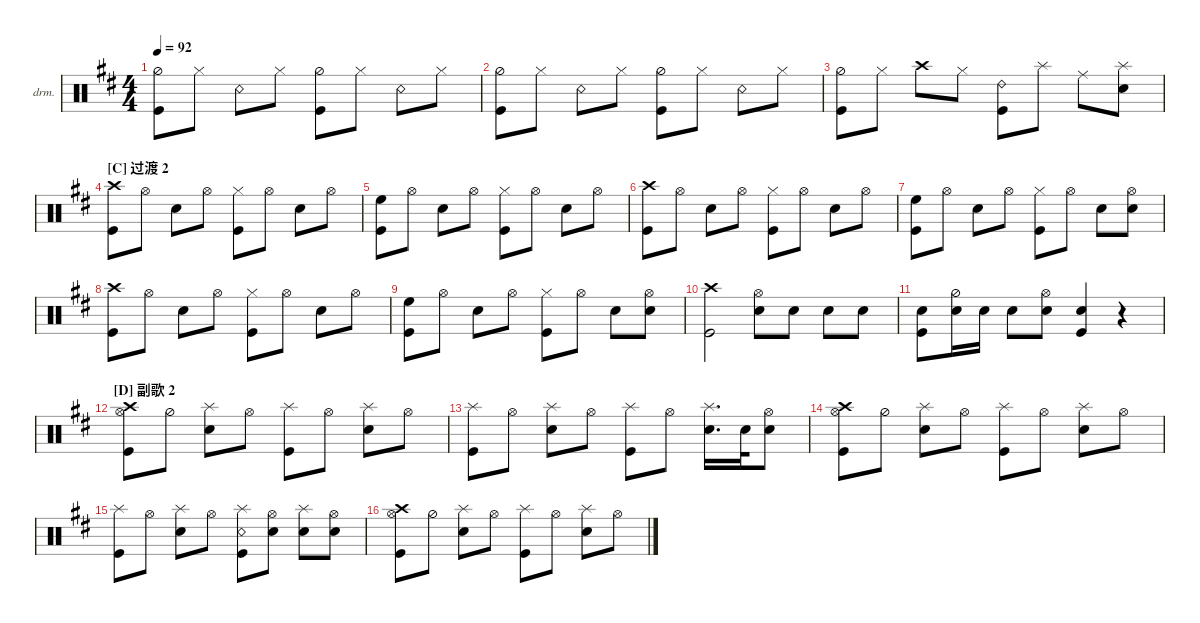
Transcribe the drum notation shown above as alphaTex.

\defaultSystemsLayout 4
\hideDynamics
\bracketExtendMode nobrackets
\firstSystemTrackNameOrientation horizontal
\otherSystemsTrackNameOrientation horizontal
\track ("Drumkit" "drm.") {instrument percussion}
\staff {score}
\articulation defaults
\ts (4 4)
\tempo 92
\clef neutral
\ks d
("Hi-Hat (half)" "Kick (hit)").8{dy mf} "Hi-Hat (closed)".8 "Snare (rim shot)".8 "Hi-Hat (closed)".8 ("Hi-Hat (half)" "Kick (hit)").8 "Hi-Hat (closed)".8 "Snare (rim shot)".8 "Hi-Hat (closed)".8 |
("Hi-Hat (half)" "Kick (hit)").8 "Hi-Hat (closed)".8 "Snare (rim shot)".8 "Hi-Hat (closed)".8 ("Hi-Hat (half)" "Kick (hit)").8 "Hi-Hat (closed)".8 "Snare (rim shot)".8 "Hi-Hat (closed)".8 |
("Hi-Hat (half)" "Kick (hit)").8 "Hi-Hat (closed)".8 "Crash high (hit)".8 "Hi-Hat (closed)".8 ("Kick (hit)" "Ride (bell) 2").8 "Splash (hit)".8 "Ride (middle)".8 ("Splash (hit)" "Snare (hit) 2").8 |
\section ("C" "过渡 2")
("Kick (hit)" "Crash high (hit)").8 "Hi-Hat (open)".8 "Snare (hit) 2".8 "Hi-Hat (open)".8 ("Hi-Hat (closed)" "Kick (hit)").8 "Hi-Hat (open)".8 "Snare (hit) 2".8 "Hi-Hat (open)".8 |
("High Floor Tom (hit)" "Kick (hit)").8 "Hi-Hat (open)".8 "Snare (hit) 2".8 "Hi-Hat (open)".8 ("Hi-Hat (closed)" "Kick (hit)").8 "Hi-Hat (open)".8 "Snare (hit) 2".8 "Hi-Hat (open)".8 |
("Kick (hit)" "Crash high (hit)").8 "Hi-Hat (open)".8 "Snare (hit) 2".8 "Hi-Hat (open)".8 ("Hi-Hat (closed)" "Kick (hit)").8 "Hi-Hat (open)".8 "Snare (hit) 2".8 "Hi-Hat (open)".8 |
("High Floor Tom (hit)" "Kick (hit)").8 "Hi-Hat (open)".8 "Snare (hit) 2".8 "Hi-Hat (open)".8 ("Hi-Hat (closed)" "Kick (hit)").8 "Hi-Hat (open)".8 "Snare (hit) 2".8 ("Hi-Hat (open)" "Snare (hit) 2").8 |
("Kick (hit)" "Crash high (hit)").8 "Hi-Hat (open)".8 "Snare (hit) 2".8 "Hi-Hat (open)".8 ("Hi-Hat (closed)" "Kick (hit)").8 "Hi-Hat (open)".8 "Snare (hit) 2".8 "Hi-Hat (open)".8 |
("High Floor Tom (hit)" "Kick (hit)").8 "Hi-Hat (open)".8 "Snare (hit) 2".8 "Hi-Hat (open)".8 ("Hi-Hat (closed)" "Kick (hit)").8 "Hi-Hat (open)".8 "Snare (hit) 2".8 ("Hi-Hat (open)" "Snare (hit) 2").8 |
("Crash high (hit)" "Kick (hit)").2 ("Snare (hit) 2" "Hi-Hat (open)").8 "Snare (hit) 2".8 "Snare (hit) 2".8 "Snare (hit) 2".8 |
("Kick (hit)" "Snare (hit) 2").8 ("Snare (hit) 2" "Hi-Hat (half)").16 "Snare (hit) 2".16 "Snare (hit) 2".8 ("Snare (hit) 2" "Hi-Hat (open)").8 ("Snare (hit) 2" "Kick (hit)").4 r.4 |
\section ("D" "副歌 2")
("Crash high (hit)" "Kick (hit)" "Hi-Hat (open)").8 "Hi-Hat (half)".8 ("Snare (hit) 2" "Splash (hit)").8 "Hi-Hat (open)".8 ("Kick (hit)" "Splash (hit)").8 "Hi-Hat (open)".8 ("Snare (hit) 2" "Splash (hit)").8 "Hi-Hat (open)".8 |
("Kick (hit)" "Splash (hit)").8 "Hi-Hat (open)".8 ("Snare (hit) 2" "Splash (hit)").8 "Hi-Hat (open)".8 ("Kick (hit)" "Splash (hit)").8 "Hi-Hat (open)".8 ("Snare (hit) 2" "Splash (hit)").16{d} "Snare (hit) 2".32 ("Snare (hit) 2" "Hi-Hat (open)").8 |
("Crash high (hit)" "Kick (hit)" "Hi-Hat (open)").8 "Hi-Hat (half)".8 ("Snare (hit) 2" "Splash (hit)").8 "Hi-Hat (open)".8 ("Kick (hit)" "Splash (hit)").8 "Hi-Hat (open)".8 ("Snare (hit) 2" "Splash (hit)").8 "Hi-Hat (open)".8 |
("Kick (hit)" "Splash (hit)").8 "Hi-Hat (open)".8 ("Snare (hit) 2" "Splash (hit)").8 "Hi-Hat (open)".8 ("Kick (hit)" "Splash (hit)" "Snare (rim shot)").8 ("Hi-Hat (open)" "Snare (hit) 2").8 ("Snare (hit) 2" "Splash (hit)").8 ("Snare (hit) 2" "Hi-Hat (open)").8 |
("Crash high (hit)" "Kick (hit)" "Hi-Hat (open)").8 "Hi-Hat (half)".8 ("Snare (hit) 2" "Splash (hit)").8 "Hi-Hat (open)".8 ("Kick (hit)" "Splash (hit)").8 "Hi-Hat (open)".8 ("Snare (hit) 2" "Splash (hit)").8 "Hi-Hat (open)".8
